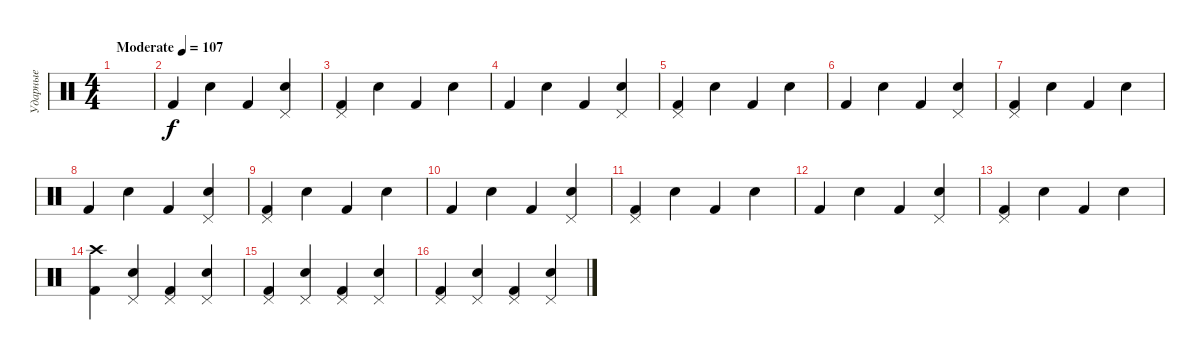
\track ("Ударные" "Ударные") {instrument percussion}
\staff {score}
\articulation defaults
\ts (4 4)
\tempo (107 "Moderate")
\clef neutral
\ks c
|
"Kick (hit) 2".4 "Snare (hit) 2".4 "Kick (hit) 2".4 ("Pedal Hi-Hat (hit)" "Snare (hit) 2").4 |
("Pedal Hi-Hat (hit)" "Kick (hit) 2").4 "Snare (hit) 2".4 "Kick (hit) 2".4 "Snare (hit) 2".4 |
"Kick (hit) 2".4 "Snare (hit) 2".4 "Kick (hit) 2".4 ("Pedal Hi-Hat (hit)" "Snare (hit) 2").4 |
("Pedal Hi-Hat (hit)" "Kick (hit) 2").4 "Snare (hit) 2".4 "Kick (hit) 2".4 "Snare (hit) 2".4 |
"Kick (hit) 2".4 "Snare (hit) 2".4 "Kick (hit) 2".4 ("Pedal Hi-Hat (hit)" "Snare (hit) 2").4 |
("Pedal Hi-Hat (hit)" "Kick (hit) 2").4 "Snare (hit) 2".4 "Kick (hit) 2".4 "Snare (hit) 2".4 |
"Kick (hit) 2".4 "Snare (hit) 2".4 "Kick (hit) 2".4 ("Pedal Hi-Hat (hit)" "Snare (hit) 2").4 |
("Pedal Hi-Hat (hit)" "Kick (hit) 2").4 "Snare (hit) 2".4 "Kick (hit) 2".4 "Snare (hit) 2".4 |
"Kick (hit) 2".4 "Snare (hit) 2".4 "Kick (hit) 2".4 ("Pedal Hi-Hat (hit)" "Snare (hit) 2").4 |
("Pedal Hi-Hat (hit)" "Kick (hit) 2").4 "Snare (hit) 2".4 "Kick (hit) 2".4 "Snare (hit) 2".4 |
"Kick (hit) 2".4 "Snare (hit) 2".4 "Kick (hit) 2".4 ("Pedal Hi-Hat (hit)" "Snare (hit) 2").4 |
("Pedal Hi-Hat (hit)" "Kick (hit) 2").4 "Snare (hit) 2".4 "Kick (hit) 2".4 "Snare (hit) 2".4 |
("Crash high (hit)" "Kick (hit) 2").4 ("Pedal Hi-Hat (hit)" "Snare (hit) 2").4 ("Pedal Hi-Hat (hit)" "Kick (hit) 2").4 ("Pedal Hi-Hat (hit)" "Snare (hit) 2").4 |
("Pedal Hi-Hat (hit)" "Kick (hit) 2").4 ("Pedal Hi-Hat (hit)" "Snare (hit) 2").4 ("Pedal Hi-Hat (hit)" "Kick (hit) 2").4 ("Pedal Hi-Hat (hit)" "Snare (hit) 2").4 |
("Pedal Hi-Hat (hit)" "Kick (hit) 2").4 ("Pedal Hi-Hat (hit)" "Snare (hit) 2").4 ("Pedal Hi-Hat (hit)" "Kick (hit) 2").4 ("Pedal Hi-Hat (hit)" "Snare (hit) 2").4
